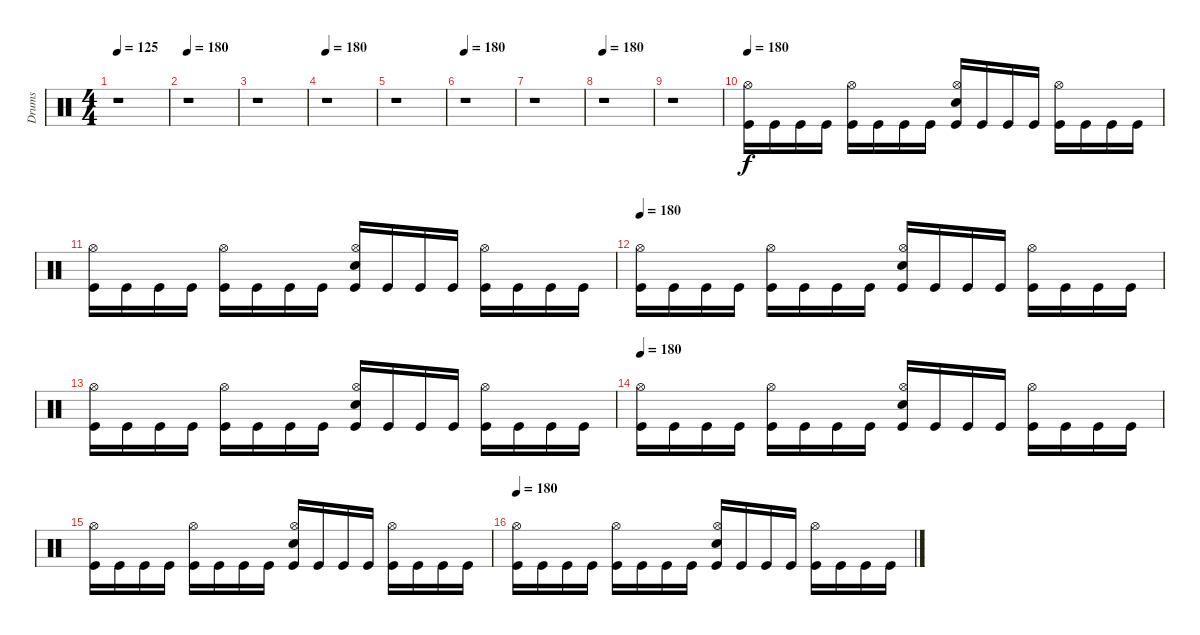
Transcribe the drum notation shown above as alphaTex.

\track ("Drums" "Drums") {instrument percussion}
\staff {score}
\articulation defaults
\ts (4 4)
\tempo 125
\clef neutral
\ks c
r.1{dy f} |
\tempo 180
r.1 |
r.1 |
\tempo 180
r.1 |
r.1 |
\tempo 180
r.1 |
r.1 |
\tempo 180
r.1 |
r.1{volume 0} |
\tempo 180
("Kick (hit)" "Hi-Hat (open)").16{volume 12} "Kick (hit)".16 "Kick (hit)".16 "Kick (hit)".16 ("Kick (hit)" "Hi-Hat (open)").16 "Kick (hit)".16 "Kick (hit)".16 "Kick (hit)".16 ("Kick (hit)" "Hi-Hat (open)" "Electric Snare (hit)").16 "Kick (hit)".16 "Kick (hit)".16 "Kick (hit)".16 ("Kick (hit)" "Hi-Hat (open)").16 "Kick (hit)".16 "Kick (hit)".16 "Kick (hit)".16 |
("Kick (hit)" "Hi-Hat (open)").16 "Kick (hit)".16 "Kick (hit)".16 "Kick (hit)".16 ("Kick (hit)" "Hi-Hat (open)").16 "Kick (hit)".16 "Kick (hit)".16 "Kick (hit)".16 ("Kick (hit)" "Hi-Hat (open)" "Electric Snare (hit)").16 "Kick (hit)".16 "Kick (hit)".16 "Kick (hit)".16 ("Kick (hit)" "Hi-Hat (open)").16 "Kick (hit)".16 "Kick (hit)".16 "Kick (hit)".16 |
\tempo 180
("Kick (hit)" "Hi-Hat (open)").16 "Kick (hit)".16 "Kick (hit)".16 "Kick (hit)".16 ("Kick (hit)" "Hi-Hat (open)").16 "Kick (hit)".16 "Kick (hit)".16 "Kick (hit)".16 ("Kick (hit)" "Hi-Hat (open)" "Electric Snare (hit)").16 "Kick (hit)".16 "Kick (hit)".16 "Kick (hit)".16 ("Kick (hit)" "Hi-Hat (open)").16 "Kick (hit)".16 "Kick (hit)".16 "Kick (hit)".16 |
("Kick (hit)" "Hi-Hat (open)").16 "Kick (hit)".16 "Kick (hit)".16 "Kick (hit)".16 ("Kick (hit)" "Hi-Hat (open)").16 "Kick (hit)".16 "Kick (hit)".16 "Kick (hit)".16 ("Kick (hit)" "Hi-Hat (open)" "Electric Snare (hit)").16 "Kick (hit)".16 "Kick (hit)".16 "Kick (hit)".16 ("Kick (hit)" "Hi-Hat (open)").16 "Kick (hit)".16 "Kick (hit)".16 "Kick (hit)".16 |
\tempo 180
("Kick (hit)" "Hi-Hat (open)").16 "Kick (hit)".16 "Kick (hit)".16 "Kick (hit)".16 ("Kick (hit)" "Hi-Hat (open)").16 "Kick (hit)".16 "Kick (hit)".16 "Kick (hit)".16 ("Kick (hit)" "Hi-Hat (open)" "Electric Snare (hit)").16 "Kick (hit)".16 "Kick (hit)".16 "Kick (hit)".16 ("Kick (hit)" "Hi-Hat (open)").16 "Kick (hit)".16 "Kick (hit)".16 "Kick (hit)".16 |
("Kick (hit)" "Hi-Hat (open)").16 "Kick (hit)".16 "Kick (hit)".16 "Kick (hit)".16 ("Kick (hit)" "Hi-Hat (open)").16 "Kick (hit)".16 "Kick (hit)".16 "Kick (hit)".16 ("Kick (hit)" "Hi-Hat (open)" "Electric Snare (hit)").16 "Kick (hit)".16 "Kick (hit)".16 "Kick (hit)".16 ("Kick (hit)" "Hi-Hat (open)").16 "Kick (hit)".16 "Kick (hit)".16 "Kick (hit)".16 |
\tempo 180
("Kick (hit)" "Hi-Hat (open)").16 "Kick (hit)".16 "Kick (hit)".16 "Kick (hit)".16 ("Kick (hit)" "Hi-Hat (open)").16 "Kick (hit)".16 "Kick (hit)".16 "Kick (hit)".16 ("Kick (hit)" "Hi-Hat (open)" "Electric Snare (hit)").16 "Kick (hit)".16 "Kick (hit)".16 "Kick (hit)".16 ("Kick (hit)" "Hi-Hat (open)").16 "Kick (hit)".16 "Kick (hit)".16 "Kick (hit)".16
